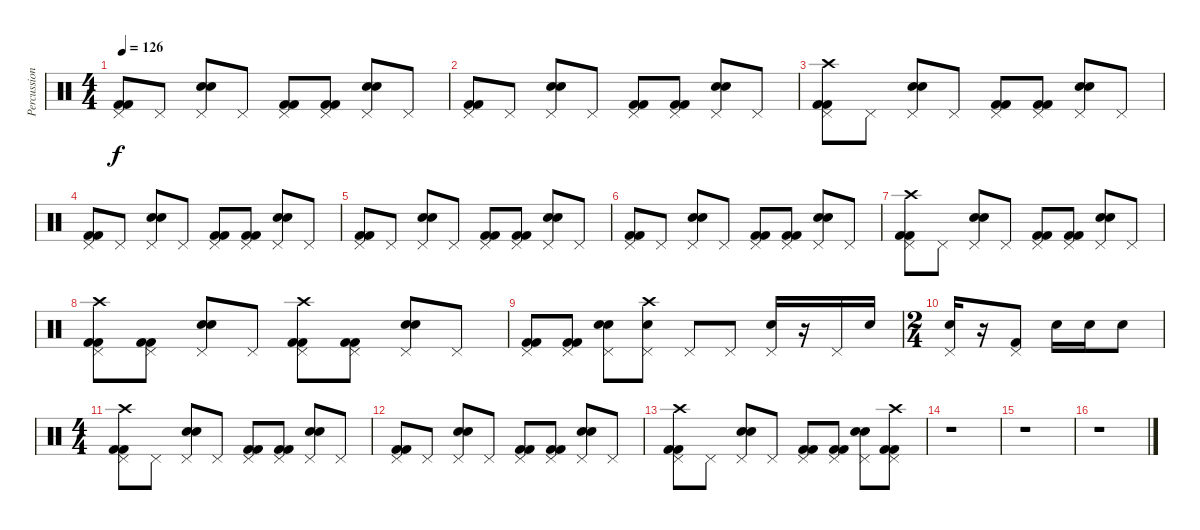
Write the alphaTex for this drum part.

\track ("Percussion" "Percussion") {instrument percussion}
\staff {score}
\articulation defaults
\ts (4 4)
\tempo 126
\clef neutral
\ks c
("Pedal Hi-Hat (hit)" "Kick (hit) 2" "Kick (hit) 2").8{dy f} "Pedal Hi-Hat (hit)".8 ("Pedal Hi-Hat (hit)" "Electric Snare (hit)" "Snare (hit) 2").8 "Pedal Hi-Hat (hit)".8 ("Pedal Hi-Hat (hit)" "Kick (hit) 2" "Kick (hit) 2").8 ("Pedal Hi-Hat (hit)" "Kick (hit) 2" "Kick (hit) 2").8 ("Pedal Hi-Hat (hit)" "Electric Snare (hit)" "Snare (hit) 2").8 "Pedal Hi-Hat (hit)".8 |
("Pedal Hi-Hat (hit)" "Kick (hit) 2" "Kick (hit) 2").8 "Pedal Hi-Hat (hit)".8 ("Pedal Hi-Hat (hit)" "Electric Snare (hit)" "Snare (hit) 2").8 "Pedal Hi-Hat (hit)".8 ("Pedal Hi-Hat (hit)" "Kick (hit) 2" "Kick (hit) 2").8 ("Pedal Hi-Hat (hit)" "Kick (hit) 2" "Kick (hit) 2").8 ("Pedal Hi-Hat (hit)" "Electric Snare (hit)" "Snare (hit) 2").8 "Pedal Hi-Hat (hit)".8 |
("Pedal Hi-Hat (hit)" "Crash high (hit)" "Kick (hit) 2" "Kick (hit) 2").8 "Pedal Hi-Hat (hit)".8 ("Pedal Hi-Hat (hit)" "Electric Snare (hit)" "Snare (hit) 2").8 "Pedal Hi-Hat (hit)".8 ("Pedal Hi-Hat (hit)" "Kick (hit) 2" "Kick (hit) 2").8 ("Pedal Hi-Hat (hit)" "Kick (hit) 2" "Kick (hit) 2").8 ("Pedal Hi-Hat (hit)" "Electric Snare (hit)" "Snare (hit) 2").8 "Pedal Hi-Hat (hit)".8 |
("Pedal Hi-Hat (hit)" "Kick (hit) 2" "Kick (hit) 2").8 "Pedal Hi-Hat (hit)".8 ("Pedal Hi-Hat (hit)" "Electric Snare (hit)" "Snare (hit) 2").8 "Pedal Hi-Hat (hit)".8 ("Pedal Hi-Hat (hit)" "Kick (hit) 2" "Kick (hit) 2").8 ("Pedal Hi-Hat (hit)" "Kick (hit) 2" "Kick (hit) 2").8 ("Pedal Hi-Hat (hit)" "Electric Snare (hit)" "Snare (hit) 2").8 "Pedal Hi-Hat (hit)".8 |
("Pedal Hi-Hat (hit)" "Kick (hit) 2" "Kick (hit) 2").8 "Pedal Hi-Hat (hit)".8 ("Pedal Hi-Hat (hit)" "Electric Snare (hit)" "Snare (hit) 2").8 "Pedal Hi-Hat (hit)".8 ("Pedal Hi-Hat (hit)" "Kick (hit) 2" "Kick (hit) 2").8 ("Pedal Hi-Hat (hit)" "Kick (hit) 2" "Kick (hit) 2").8 ("Pedal Hi-Hat (hit)" "Electric Snare (hit)" "Snare (hit) 2").8 "Pedal Hi-Hat (hit)".8 |
("Pedal Hi-Hat (hit)" "Kick (hit) 2" "Kick (hit) 2").8 "Pedal Hi-Hat (hit)".8 ("Pedal Hi-Hat (hit)" "Electric Snare (hit)" "Snare (hit) 2").8 "Pedal Hi-Hat (hit)".8 ("Pedal Hi-Hat (hit)" "Kick (hit) 2" "Kick (hit) 2").8 ("Pedal Hi-Hat (hit)" "Kick (hit) 2" "Kick (hit) 2").8 ("Pedal Hi-Hat (hit)" "Electric Snare (hit)" "Snare (hit) 2").8 "Pedal Hi-Hat (hit)".8 |
("Pedal Hi-Hat (hit)" "Crash high (hit)" "Kick (hit) 2" "Kick (hit) 2").8 "Pedal Hi-Hat (hit)".8 ("Pedal Hi-Hat (hit)" "Electric Snare (hit)" "Snare (hit) 2").8 "Pedal Hi-Hat (hit)".8 ("Pedal Hi-Hat (hit)" "Kick (hit) 2" "Kick (hit) 2").8 ("Pedal Hi-Hat (hit)" "Kick (hit) 2" "Kick (hit) 2").8 ("Pedal Hi-Hat (hit)" "Electric Snare (hit)" "Snare (hit) 2").8 "Pedal Hi-Hat (hit)".8 |
("Pedal Hi-Hat (hit)" "Crash high (hit)" "Kick (hit) 2" "Kick (hit) 2").8 ("Pedal Hi-Hat (hit)" "Kick (hit) 2" "Kick (hit) 2").8 ("Pedal Hi-Hat (hit)" "Electric Snare (hit)" "Snare (hit) 2").8 "Pedal Hi-Hat (hit)".8 ("Pedal Hi-Hat (hit)" "Crash high (hit)" "Kick (hit) 2" "Kick (hit) 2").8 ("Pedal Hi-Hat (hit)" "Kick (hit) 2" "Kick (hit) 2").8 ("Pedal Hi-Hat (hit)" "Electric Snare (hit)" "Snare (hit) 2").8 "Pedal Hi-Hat (hit)".8 |
("Pedal Hi-Hat (hit)" "Kick (hit) 2" "Kick (hit) 2").8 ("Pedal Hi-Hat (hit)" "Kick (hit) 2" "Kick (hit) 2").8 ("Pedal Hi-Hat (hit)" "Electric Snare (hit)" "Snare (hit) 2").8 ("Pedal Hi-Hat (hit)" "Crash high (hit)" "Electric Snare (hit)").8 "Pedal Hi-Hat (hit)".8 "Pedal Hi-Hat (hit)".8 ("Pedal Hi-Hat (hit)" "Electric Snare (hit)").16 r.16 "Pedal Hi-Hat (hit)".16 "Electric Snare (hit)".16 |
\ts (2 4)
("Pedal Hi-Hat (hit)" "Electric Snare (hit)").16 r.16 ("Pedal Hi-Hat (hit)" "Kick (hit) 2").8 "Electric Snare (hit)".16 "Electric Snare (hit)".16 "Electric Snare (hit)".8 |
\ts (4 4)
("Pedal Hi-Hat (hit)" "Crash high (hit)" "Kick (hit) 2" "Kick (hit) 2").8 "Pedal Hi-Hat (hit)".8 ("Pedal Hi-Hat (hit)" "Electric Snare (hit)" "Snare (hit) 2").8 "Pedal Hi-Hat (hit)".8 ("Pedal Hi-Hat (hit)" "Kick (hit) 2" "Kick (hit) 2").8 ("Pedal Hi-Hat (hit)" "Kick (hit) 2" "Kick (hit) 2").8 ("Pedal Hi-Hat (hit)" "Electric Snare (hit)" "Snare (hit) 2").8 "Pedal Hi-Hat (hit)".8 |
("Pedal Hi-Hat (hit)" "Kick (hit) 2" "Kick (hit) 2").8 "Pedal Hi-Hat (hit)".8 ("Pedal Hi-Hat (hit)" "Electric Snare (hit)" "Snare (hit) 2").8 "Pedal Hi-Hat (hit)".8 ("Pedal Hi-Hat (hit)" "Kick (hit) 2" "Kick (hit) 2").8 ("Pedal Hi-Hat (hit)" "Kick (hit) 2" "Kick (hit) 2").8 ("Pedal Hi-Hat (hit)" "Electric Snare (hit)" "Snare (hit) 2").8 "Pedal Hi-Hat (hit)".8 |
("Pedal Hi-Hat (hit)" "Crash high (hit)" "Kick (hit) 2" "Kick (hit) 2").8 "Pedal Hi-Hat (hit)".8 ("Pedal Hi-Hat (hit)" "Electric Snare (hit)" "Snare (hit) 2").8 "Pedal Hi-Hat (hit)".8 ("Pedal Hi-Hat (hit)" "Kick (hit) 2" "Kick (hit) 2").8 ("Pedal Hi-Hat (hit)" "Kick (hit) 2" "Kick (hit) 2").8 ("Pedal Hi-Hat (hit)" "Electric Snare (hit)" "Snare (hit) 2").8 ("Pedal Hi-Hat (hit)" "Crash high (hit)" "Kick (hit) 2" "Kick (hit) 2").8 |
r.1 |
r.1 |
r.1
